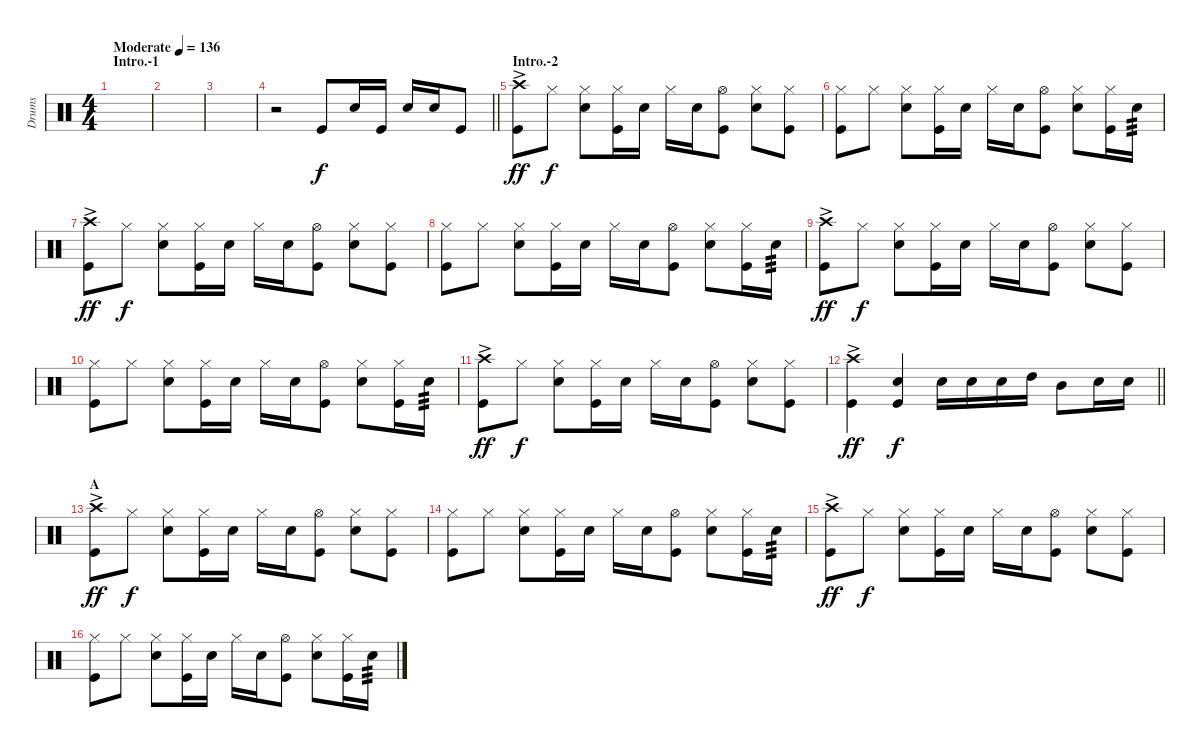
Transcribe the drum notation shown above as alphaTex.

\track ("Drums" "Drums") {instrument percussion}
\staff {score}
\articulation defaults
\ts (4 4)
\section ("" "Intro.-1")
\tempo (136 "Moderate")
\clef neutral
\ks c
|
|
|
\barLineRight lightlight
r.2 "Kick (hit)".8 "Snare (hit) 2".16 "Kick (hit)".16 "Snare (hit) 2".16 "Snare (hit) 2".16 "Kick (hit)".8 |
\section ("" "Intro.-2")
("Crash high (hit)"{ac} "Kick (hit)").8{dy ff} "Hi-Hat (closed)".8{dy f} ("Hi-Hat (closed)" "Snare (hit) 2").8 ("Hi-Hat (closed)" "Kick (hit)").16 "Snare (hit) 2".16 "Hi-Hat (closed)".16 "Snare (hit) 2".16 ("Hi-Hat (open)" "Kick (hit)").8 ("Hi-Hat (closed)" "Snare (hit) 2").8 ("Hi-Hat (closed)" "Kick (hit)").8 |
("Hi-Hat (closed)" "Kick (hit)").8 "Hi-Hat (closed)".8 ("Hi-Hat (closed)" "Snare (hit) 2").8 ("Hi-Hat (closed)" "Kick (hit)").16 "Snare (hit) 2".16 "Hi-Hat (closed)".16 "Snare (hit) 2".16 ("Hi-Hat (open)" "Kick (hit)").8 ("Hi-Hat (closed)" "Snare (hit) 2").8 ("Hi-Hat (closed)" "Kick (hit)").16 "Snare (hit) 2".16{tp 3} |
("Crash high (hit)"{ac} "Kick (hit)").8{dy ff} "Hi-Hat (closed)".8{dy f} ("Hi-Hat (closed)" "Snare (hit) 2").8 ("Hi-Hat (closed)" "Kick (hit)").16 "Snare (hit) 2".16 "Hi-Hat (closed)".16 "Snare (hit) 2".16 ("Hi-Hat (open)" "Kick (hit)").8 ("Hi-Hat (closed)" "Snare (hit) 2").8 ("Hi-Hat (closed)" "Kick (hit)").8 |
("Hi-Hat (closed)" "Kick (hit)").8 "Hi-Hat (closed)".8 ("Hi-Hat (closed)" "Snare (hit) 2").8 ("Hi-Hat (closed)" "Kick (hit)").16 "Snare (hit) 2".16 "Hi-Hat (closed)".16 "Snare (hit) 2".16 ("Hi-Hat (open)" "Kick (hit)").8 ("Hi-Hat (closed)" "Snare (hit) 2").8 ("Hi-Hat (closed)" "Kick (hit)").16 "Snare (hit) 2".16{tp 3} |
("Crash high (hit)"{ac} "Kick (hit)").8{dy ff} "Hi-Hat (closed)".8{dy f} ("Hi-Hat (closed)" "Snare (hit) 2").8 ("Hi-Hat (closed)" "Kick (hit)").16 "Snare (hit) 2".16 "Hi-Hat (closed)".16 "Snare (hit) 2".16 ("Hi-Hat (open)" "Kick (hit)").8 ("Hi-Hat (closed)" "Snare (hit) 2").8 ("Hi-Hat (closed)" "Kick (hit)").8 |
("Hi-Hat (closed)" "Kick (hit)").8 "Hi-Hat (closed)".8 ("Hi-Hat (closed)" "Snare (hit) 2").8 ("Hi-Hat (closed)" "Kick (hit)").16 "Snare (hit) 2".16 "Hi-Hat (closed)".16 "Snare (hit) 2".16 ("Hi-Hat (open)" "Kick (hit)").8 ("Hi-Hat (closed)" "Snare (hit) 2").8 ("Hi-Hat (closed)" "Kick (hit)").16 "Snare (hit) 2".16{tp 3} |
("Crash high (hit)"{ac} "Kick (hit)").8{dy ff} "Hi-Hat (closed)".8{dy f} ("Hi-Hat (closed)" "Snare (hit) 2").8 ("Hi-Hat (closed)" "Kick (hit)").16 "Snare (hit) 2".16 "Hi-Hat (closed)".16 "Snare (hit) 2".16 ("Hi-Hat (open)" "Kick (hit)").8 ("Hi-Hat (closed)" "Snare (hit) 2").8 ("Hi-Hat (closed)" "Kick (hit)").8 |
\barLineRight lightlight
("Crash high (hit)"{ac} "Kick (hit)").4{dy ff} ("Snare (hit) 2" "Kick (hit)").4{dy f} "Snare (hit) 2".16 "Snare (hit) 2".16 "Snare (hit) 2".16 "High Tom (hit)".16 "Mid Tom (hit)".8 "Snare (hit) 2".16 "Snare (hit) 2".16 |
\section ("" "A")
("Crash high (hit)"{ac} "Kick (hit)").8{dy ff} "Hi-Hat (closed)".8{dy f} ("Hi-Hat (closed)" "Snare (hit) 2").8 ("Hi-Hat (closed)" "Kick (hit)").16 "Snare (hit) 2".16 "Hi-Hat (closed)".16 "Snare (hit) 2".16 ("Hi-Hat (open)" "Kick (hit)").8 ("Hi-Hat (closed)" "Snare (hit) 2").8 ("Hi-Hat (closed)" "Kick (hit)").8 |
("Hi-Hat (closed)" "Kick (hit)").8 "Hi-Hat (closed)".8 ("Hi-Hat (closed)" "Snare (hit) 2").8 ("Hi-Hat (closed)" "Kick (hit)").16 "Snare (hit) 2".16 "Hi-Hat (closed)".16 "Snare (hit) 2".16 ("Hi-Hat (open)" "Kick (hit)").8 ("Hi-Hat (closed)" "Snare (hit) 2").8 ("Hi-Hat (closed)" "Kick (hit)").16 "Snare (hit) 2".16{tp 3} |
("Crash high (hit)"{ac} "Kick (hit)").8{dy ff} "Hi-Hat (closed)".8{dy f} ("Hi-Hat (closed)" "Snare (hit) 2").8 ("Hi-Hat (closed)" "Kick (hit)").16 "Snare (hit) 2".16 "Hi-Hat (closed)".16 "Snare (hit) 2".16 ("Hi-Hat (open)" "Kick (hit)").8 ("Hi-Hat (closed)" "Snare (hit) 2").8 ("Hi-Hat (closed)" "Kick (hit)").8 |
("Hi-Hat (closed)" "Kick (hit)").8 "Hi-Hat (closed)".8 ("Hi-Hat (closed)" "Snare (hit) 2").8 ("Hi-Hat (closed)" "Kick (hit)").16 "Snare (hit) 2".16 "Hi-Hat (closed)".16 "Snare (hit) 2".16 ("Hi-Hat (open)" "Kick (hit)").8 ("Hi-Hat (closed)" "Snare (hit) 2").8 ("Hi-Hat (closed)" "Kick (hit)").16 "Snare (hit) 2".16{tp 3}
